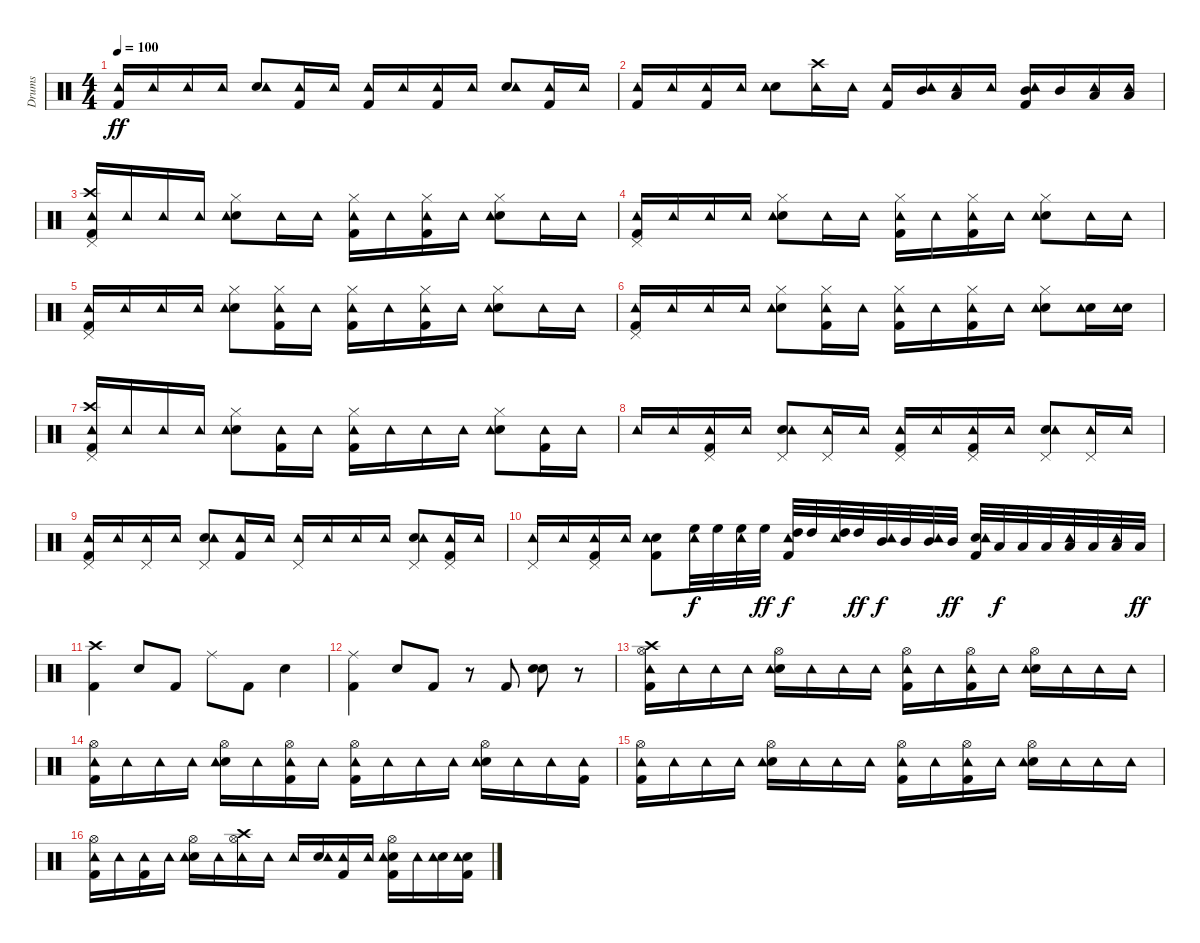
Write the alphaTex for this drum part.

\track ("Drums" "Drums") {instrument percussion}
\staff {score}
\articulation defaults
\ts (4 4)
\tempo 100
\clef neutral
\ks c
("Kick (hit) 2" "Tambourine (hit)").16{dy ff} "Tambourine (hit)".16 "Tambourine (hit)".16 "Tambourine (hit)".16 ("Snare (hit) 2" "Tambourine (hit)").8 ("Kick (hit) 2" "Tambourine (hit)").16 "Tambourine (hit)".16 ("Kick (hit) 2" "Tambourine (hit)").16 "Tambourine (hit)".16 ("Kick (hit) 2" "Tambourine (hit)").16 "Tambourine (hit)".16 ("Snare (hit) 2" "Tambourine (hit)").8 ("Kick (hit) 2" "Tambourine (hit)").16 "Tambourine (hit)".16 |
("Kick (hit) 2" "Tambourine (hit)").16 "Tambourine (hit)".16 ("Kick (hit) 2" "Tambourine (hit)").16 "Tambourine (hit)".16 ("Snare (hit) 2" "Tambourine (hit)").8 ("Crash high (hit)" "Tambourine (hit)").16 "Tambourine (hit)".16 ("Kick (hit) 2" "Tambourine (hit)").16 ("Mid Tom (hit)" "Tambourine (hit)").16 ("Low Tom (hit)" "Tambourine (hit)").16 "Tambourine (hit)".16 ("Kick (hit) 2" "Mid Tom (hit)" "Tambourine (hit)").16 "Mid Tom (hit)".16 ("Low Floor Tom (hit)" "Tambourine (hit)").16 ("Low Floor Tom (hit)" "Tambourine (hit)").16 |
("Kick (hit) 2" "Pedal Hi-Hat (hit)" "Crash high (hit)" "Tambourine (hit)").16 "Tambourine (hit)".16 "Tambourine (hit)".16 "Tambourine (hit)".16 ("Snare (hit) 2" "Hi-Hat (closed)" "Tambourine (hit)").8 "Tambourine (hit)".16 "Tambourine (hit)".16 ("Kick (hit) 2" "Hi-Hat (closed)" "Tambourine (hit)").16 "Tambourine (hit)".16 ("Kick (hit) 2" "Hi-Hat (closed)" "Tambourine (hit)").16 "Tambourine (hit)".16 ("Snare (hit) 2" "Hi-Hat (closed)" "Tambourine (hit)").8 "Tambourine (hit)".16 "Tambourine (hit)".16 |
("Kick (hit) 2" "Pedal Hi-Hat (hit)" "Tambourine (hit)").16 "Tambourine (hit)".16 "Tambourine (hit)".16 "Tambourine (hit)".16 ("Snare (hit) 2" "Hi-Hat (closed)" "Tambourine (hit)").8 "Tambourine (hit)".16 "Tambourine (hit)".16 ("Kick (hit) 2" "Hi-Hat (closed)" "Tambourine (hit)").16 "Tambourine (hit)".16 ("Kick (hit) 2" "Hi-Hat (closed)" "Tambourine (hit)").16 "Tambourine (hit)".16 ("Snare (hit) 2" "Hi-Hat (closed)" "Tambourine (hit)").8 "Tambourine (hit)".16 "Tambourine (hit)".16 |
("Kick (hit) 2" "Pedal Hi-Hat (hit)" "Tambourine (hit)").16 "Tambourine (hit)".16 "Tambourine (hit)".16 "Tambourine (hit)".16 ("Snare (hit) 2" "Hi-Hat (closed)" "Tambourine (hit)").8 ("Kick (hit) 2" "Hi-Hat (closed)" "Tambourine (hit)").16 "Tambourine (hit)".16 ("Kick (hit) 2" "Hi-Hat (closed)" "Tambourine (hit)").16 "Tambourine (hit)".16 ("Kick (hit) 2" "Hi-Hat (closed)" "Tambourine (hit)").16 "Tambourine (hit)".16 ("Snare (hit) 2" "Hi-Hat (closed)" "Tambourine (hit)").8 "Tambourine (hit)".16 "Tambourine (hit)".16 |
("Kick (hit) 2" "Pedal Hi-Hat (hit)" "Tambourine (hit)").16 "Tambourine (hit)".16 "Tambourine (hit)".16 "Tambourine (hit)".16 ("Snare (hit) 2" "Hi-Hat (closed)" "Tambourine (hit)").8 ("Kick (hit) 2" "Hi-Hat (closed)" "Tambourine (hit)").16 "Tambourine (hit)".16 ("Kick (hit) 2" "Hi-Hat (closed)" "Tambourine (hit)").16 "Tambourine (hit)".16 ("Kick (hit) 2" "Hi-Hat (closed)" "Tambourine (hit)").16 "Tambourine (hit)".16 ("Snare (hit) 2" "Hi-Hat (closed)" "Tambourine (hit)").8 ("Snare (hit) 2" "Tambourine (hit)").16 ("Snare (hit) 2" "Tambourine (hit)").16 |
("Kick (hit) 2" "Pedal Hi-Hat (hit)" "Crash high (hit)" "Tambourine (hit)").16 "Tambourine (hit)".16 "Tambourine (hit)".16 "Tambourine (hit)".16 ("Snare (hit) 2" "Hi-Hat (closed)" "Tambourine (hit)").8 ("Kick (hit) 2" "Tambourine (hit)").16 "Tambourine (hit)".16 ("Kick (hit) 2" "Hi-Hat (closed)" "Tambourine (hit)").16 "Tambourine (hit)".16 "Tambourine (hit)".16 "Tambourine (hit)".16 ("Snare (hit) 2" "Hi-Hat (closed)" "Tambourine (hit)").8 ("Kick (hit) 2" "Tambourine (hit)").16 "Tambourine (hit)".16 |
"Tambourine (hit)".16 "Tambourine (hit)".16 ("Kick (hit) 2" "Pedal Hi-Hat (hit)" "Tambourine (hit)").16 "Tambourine (hit)".16 ("Snare (hit) 2" "Pedal Hi-Hat (hit)" "Tambourine (hit)").8 ("Pedal Hi-Hat (hit)" "Tambourine (hit)").16 "Tambourine (hit)".16 ("Kick (hit) 2" "Pedal Hi-Hat (hit)" "Tambourine (hit)").16 "Tambourine (hit)".16 ("Kick (hit) 2" "Pedal Hi-Hat (hit)" "Tambourine (hit)").16 "Tambourine (hit)".16 ("Snare (hit) 2" "Pedal Hi-Hat (hit)" "Tambourine (hit)").8 ("Pedal Hi-Hat (hit)" "Tambourine (hit)").16 "Tambourine (hit)".16 |
("Kick (hit) 2" "Pedal Hi-Hat (hit)" "Tambourine (hit)").16 "Tambourine (hit)".16 ("Pedal Hi-Hat (hit)" "Tambourine (hit)").16 "Tambourine (hit)".16 ("Snare (hit) 2" "Pedal Hi-Hat (hit)" "Tambourine (hit)").8 ("Kick (hit) 2" "Tambourine (hit)").16 "Tambourine (hit)".16 ("Pedal Hi-Hat (hit)" "Tambourine (hit)").16 "Tambourine (hit)".16 "Tambourine (hit)".16 "Tambourine (hit)".16 ("Snare (hit) 2" "Pedal Hi-Hat (hit)" "Tambourine (hit)").8 ("Kick (hit) 2" "Pedal Hi-Hat (hit)" "Tambourine (hit)").16 "Tambourine (hit)".16 |
("Pedal Hi-Hat (hit)" "Tambourine (hit)").16 "Tambourine (hit)".16 ("Kick (hit) 2" "Pedal Hi-Hat (hit)" "Tambourine (hit)").16 "Tambourine (hit)".16 ("Kick (hit) 2" "Snare (hit) 2" "Tambourine (hit)").8 ("High Floor Tom (hit)" "Tambourine (hit)").32{dy f} "High Floor Tom (hit)".32 ("High Floor Tom (hit)" "Tambourine (hit)").32 "High Floor Tom (hit)".32{dy ff} ("Kick (hit) 2" "High Tom (hit)" "Tambourine (hit)").32{dy f} "High Tom (hit)".32 ("High Tom (hit)" "Tambourine (hit)").32 "High Tom (hit)".32{dy ff} ("Mid Tom (hit)" "Tambourine (hit)").32{dy f} "Mid Tom (hit)".32 ("Mid Tom (hit)" "Tambourine (hit)").32 "Mid Tom (hit)".32{dy ff} ("Kick (hit) 2" "Snare (hit) 2" "Tambourine (hit)").32 "Low Tom (hit)".32{dy f} "Low Tom (hit)".32 "Low Tom (hit)".32 ("Low Tom (hit)" "Tambourine (hit)").32 "Low Tom (hit)".32 ("Low Tom (hit)" "Tambourine (hit)").32 "Low Tom (hit)".32{dy ff} |
("Kick (hit) 2" "Crash high (hit)").4 "Snare (hit) 2".8 "Kick (hit) 2".8 "Ride (middle)".8 "Kick (hit) 2".8 "Snare (hit) 2".4 |
("Kick (hit) 2" "Ride (middle)").4 "Snare (hit) 2".8 "Kick (hit) 2".8 r.8 "Kick (hit) 2".8 ("Snare (hit) 2" "Snare (hit) 2").8 r.8 |
("Kick (hit) 2" "Hi-Hat (open)" "Crash high (hit)" "Tambourine (hit)").16 "Tambourine (hit)".16 "Tambourine (hit)".16 "Tambourine (hit)".16 ("Snare (hit) 2" "Hi-Hat (open)" "Tambourine (hit)").16 "Tambourine (hit)".16 "Tambourine (hit)".16 "Tambourine (hit)".16 ("Kick (hit) 2" "Hi-Hat (open)" "Tambourine (hit)").16 "Tambourine (hit)".16 ("Kick (hit) 2" "Hi-Hat (open)" "Tambourine (hit)").16 "Tambourine (hit)".16 ("Snare (hit) 2" "Hi-Hat (open)" "Tambourine (hit)").16 "Tambourine (hit)".16 "Tambourine (hit)".16 "Tambourine (hit)".16 |
("Kick (hit) 2" "Hi-Hat (open)" "Tambourine (hit)").16 "Tambourine (hit)".16 "Tambourine (hit)".16 "Tambourine (hit)".16 ("Snare (hit) 2" "Hi-Hat (open)" "Tambourine (hit)").16 "Tambourine (hit)".16 ("Kick (hit) 2" "Hi-Hat (open)" "Tambourine (hit)").16 "Tambourine (hit)".16 ("Kick (hit) 2" "Hi-Hat (open)" "Tambourine (hit)").16 "Tambourine (hit)".16 "Tambourine (hit)".16 "Tambourine (hit)".16 ("Snare (hit) 2" "Hi-Hat (open)" "Tambourine (hit)").16 "Tambourine (hit)".16 "Tambourine (hit)".16 ("Kick (hit) 2" "Tambourine (hit)").16 |
("Kick (hit) 2" "Hi-Hat (open)" "Tambourine (hit)").16 "Tambourine (hit)".16 "Tambourine (hit)".16 "Tambourine (hit)".16 ("Snare (hit) 2" "Hi-Hat (open)" "Tambourine (hit)").16 "Tambourine (hit)".16 "Tambourine (hit)".16 "Tambourine (hit)".16 ("Kick (hit) 2" "Hi-Hat (open)" "Tambourine (hit)").16 "Tambourine (hit)".16 ("Kick (hit) 2" "Hi-Hat (open)" "Tambourine (hit)").16 "Tambourine (hit)".16 ("Snare (hit) 2" "Hi-Hat (open)" "Tambourine (hit)").16 "Tambourine (hit)".16 "Tambourine (hit)".16 "Tambourine (hit)".16 |
("Kick (hit) 2" "Hi-Hat (open)" "Tambourine (hit)").16 "Tambourine (hit)".16 ("Kick (hit) 2" "Tambourine (hit)").16 "Tambourine (hit)".16 ("Snare (hit) 2" "Hi-Hat (open)" "Tambourine (hit)").16 "Tambourine (hit)".16 ("Hi-Hat (open)" "Crash high (hit)" "Tambourine (hit)").16 "Tambourine (hit)".16 "Tambourine (hit)".16 ("Snare (hit) 2" "Tambourine (hit)").16 ("Kick (hit) 2" "Tambourine (hit)").16 "Tambourine (hit)".16 ("Kick (hit) 2" "Snare (hit) 2" "Hi-Hat (open)" "Tambourine (hit)").16 "Tambourine (hit)".16 ("Snare (hit) 2" "Tambourine (hit)").16 ("Kick (hit) 2" "Snare (hit) 2" "Tambourine (hit)").16
